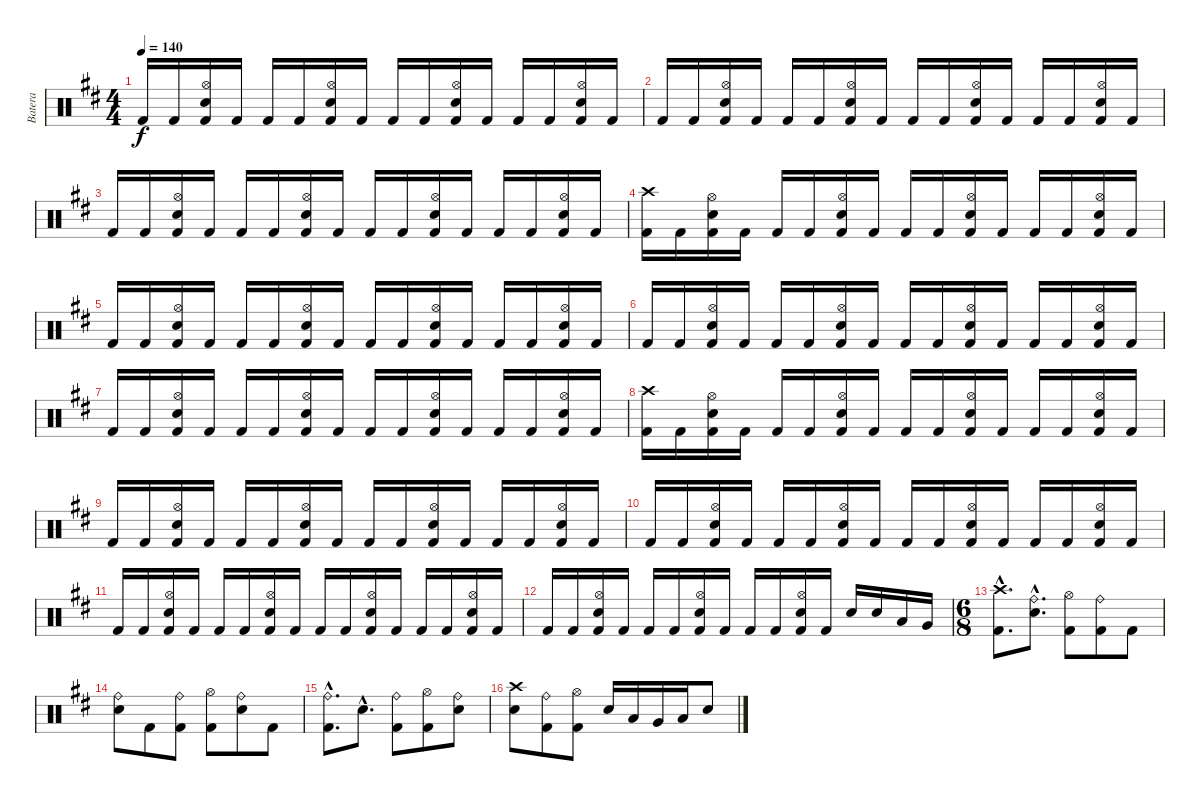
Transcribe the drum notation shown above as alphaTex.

\track ("Batera" "Batera") {instrument percussion}
\staff {score}
\articulation defaults
\ts (4 4)
\tempo 140
\clef neutral
\ks bminor "Kick (hit) 2".16{dy f} "Kick (hit) 2".16
("Hi-Hat (open)" "Electric Snare (hit)" "Kick (hit) 2").16 "Kick (hit) 2".16 "Kick (hit) 2".16 "Kick (hit) 2".16 ("Hi-Hat (open)" "Electric Snare (hit)" "Kick (hit) 2").16 "Kick (hit) 2".16 "Kick (hit) 2".16 "Kick (hit) 2".16 ("Hi-Hat (open)" "Electric Snare (hit)" "Kick (hit) 2").16 "Kick (hit) 2".16 "Kick (hit) 2".16 "Kick (hit) 2".16 ("Hi-Hat (open)" "Electric Snare (hit)" "Kick (hit) 2").16 "Kick (hit) 2".16 |
"Kick (hit) 2".16 "Kick (hit) 2".16 ("Hi-Hat (open)" "Electric Snare (hit)" "Kick (hit) 2").16 "Kick (hit) 2".16 "Kick (hit) 2".16 "Kick (hit) 2".16 ("Hi-Hat (open)" "Electric Snare (hit)" "Kick (hit) 2").16 "Kick (hit) 2".16 "Kick (hit) 2".16 "Kick (hit) 2".16 ("Hi-Hat (open)" "Electric Snare (hit)" "Kick (hit) 2").16 "Kick (hit) 2".16 "Kick (hit) 2".16 "Kick (hit) 2".16 ("Hi-Hat (open)" "Electric Snare (hit)" "Kick (hit) 2").16 "Kick (hit) 2".16 |
"Kick (hit) 2".16 "Kick (hit) 2".16 ("Hi-Hat (open)" "Electric Snare (hit)" "Kick (hit) 2").16 "Kick (hit) 2".16 "Kick (hit) 2".16 "Kick (hit) 2".16 ("Hi-Hat (open)" "Electric Snare (hit)" "Kick (hit) 2").16 "Kick (hit) 2".16 "Kick (hit) 2".16 "Kick (hit) 2".16 ("Hi-Hat (open)" "Electric Snare (hit)" "Kick (hit) 2").16 "Kick (hit) 2".16 "Kick (hit) 2".16 "Kick (hit) 2".16 ("Hi-Hat (open)" "Electric Snare (hit)" "Kick (hit) 2").16 "Kick (hit) 2".16 |
("Crash high (hit)" "Kick (hit) 2").16 "Kick (hit) 2".16 ("Hi-Hat (open)" "Electric Snare (hit)" "Kick (hit) 2").16 "Kick (hit) 2".16 "Kick (hit) 2".16 "Kick (hit) 2".16 ("Hi-Hat (open)" "Electric Snare (hit)" "Kick (hit) 2").16 "Kick (hit) 2".16 "Kick (hit) 2".16 "Kick (hit) 2".16 ("Hi-Hat (open)" "Electric Snare (hit)" "Kick (hit) 2").16 "Kick (hit) 2".16 "Kick (hit) 2".16 "Kick (hit) 2".16 ("Hi-Hat (open)" "Electric Snare (hit)" "Kick (hit) 2").16 "Kick (hit) 2".16 |
"Kick (hit) 2".16 "Kick (hit) 2".16 ("Hi-Hat (open)" "Electric Snare (hit)" "Kick (hit) 2").16 "Kick (hit) 2".16 "Kick (hit) 2".16 "Kick (hit) 2".16 ("Hi-Hat (open)" "Electric Snare (hit)" "Kick (hit) 2").16 "Kick (hit) 2".16 "Kick (hit) 2".16 "Kick (hit) 2".16 ("Hi-Hat (open)" "Electric Snare (hit)" "Kick (hit) 2").16 "Kick (hit) 2".16 "Kick (hit) 2".16 "Kick (hit) 2".16 ("Hi-Hat (open)" "Electric Snare (hit)" "Kick (hit) 2").16 "Kick (hit) 2".16 |
"Kick (hit) 2".16 "Kick (hit) 2".16 ("Hi-Hat (open)" "Electric Snare (hit)" "Kick (hit) 2").16 "Kick (hit) 2".16 "Kick (hit) 2".16 "Kick (hit) 2".16 ("Hi-Hat (open)" "Electric Snare (hit)" "Kick (hit) 2").16 "Kick (hit) 2".16 "Kick (hit) 2".16 "Kick (hit) 2".16 ("Hi-Hat (open)" "Electric Snare (hit)" "Kick (hit) 2").16 "Kick (hit) 2".16 "Kick (hit) 2".16 "Kick (hit) 2".16 ("Hi-Hat (open)" "Electric Snare (hit)" "Kick (hit) 2").16 "Kick (hit) 2".16 |
"Kick (hit) 2".16 "Kick (hit) 2".16 ("Hi-Hat (open)" "Electric Snare (hit)" "Kick (hit) 2").16 "Kick (hit) 2".16 "Kick (hit) 2".16 "Kick (hit) 2".16 ("Hi-Hat (open)" "Electric Snare (hit)" "Kick (hit) 2").16 "Kick (hit) 2".16 "Kick (hit) 2".16 "Kick (hit) 2".16 ("Hi-Hat (open)" "Electric Snare (hit)" "Kick (hit) 2").16 "Kick (hit) 2".16 "Kick (hit) 2".16 "Kick (hit) 2".16 ("Hi-Hat (open)" "Electric Snare (hit)" "Kick (hit) 2").16 "Kick (hit) 2".16 |
("Crash high (hit)" "Kick (hit) 2").16 "Kick (hit) 2".16 ("Hi-Hat (open)" "Electric Snare (hit)" "Kick (hit) 2").16 "Kick (hit) 2".16 "Kick (hit) 2".16 "Kick (hit) 2".16 ("Hi-Hat (open)" "Electric Snare (hit)" "Kick (hit) 2").16 "Kick (hit) 2".16 "Kick (hit) 2".16 "Kick (hit) 2".16 ("Hi-Hat (open)" "Electric Snare (hit)" "Kick (hit) 2").16 "Kick (hit) 2".16 "Kick (hit) 2".16 "Kick (hit) 2".16 ("Hi-Hat (open)" "Electric Snare (hit)" "Kick (hit) 2").16 "Kick (hit) 2".16 |
"Kick (hit) 2".16 "Kick (hit) 2".16 ("Hi-Hat (open)" "Electric Snare (hit)" "Kick (hit) 2").16 "Kick (hit) 2".16 "Kick (hit) 2".16 "Kick (hit) 2".16 ("Hi-Hat (open)" "Electric Snare (hit)" "Kick (hit) 2").16 "Kick (hit) 2".16 "Kick (hit) 2".16 "Kick (hit) 2".16 ("Hi-Hat (open)" "Electric Snare (hit)" "Kick (hit) 2").16 "Kick (hit) 2".16 "Kick (hit) 2".16 "Kick (hit) 2".16 ("Hi-Hat (open)" "Electric Snare (hit)" "Kick (hit) 2").16 "Kick (hit) 2".16 |
"Kick (hit) 2".16 "Kick (hit) 2".16 ("Hi-Hat (open)" "Electric Snare (hit)" "Kick (hit) 2").16 "Kick (hit) 2".16 "Kick (hit) 2".16 "Kick (hit) 2".16 ("Hi-Hat (open)" "Electric Snare (hit)" "Kick (hit) 2").16 "Kick (hit) 2".16 "Kick (hit) 2".16 "Kick (hit) 2".16 ("Hi-Hat (open)" "Electric Snare (hit)" "Kick (hit) 2").16 "Kick (hit) 2".16 "Kick (hit) 2".16 "Kick (hit) 2".16 ("Hi-Hat (open)" "Electric Snare (hit)" "Kick (hit) 2").16 "Kick (hit) 2".16 |
"Kick (hit) 2".16 "Kick (hit) 2".16 ("Hi-Hat (open)" "Electric Snare (hit)" "Kick (hit) 2").16 "Kick (hit) 2".16 "Kick (hit) 2".16 "Kick (hit) 2".16 ("Hi-Hat (open)" "Electric Snare (hit)" "Kick (hit) 2").16 "Kick (hit) 2".16 "Kick (hit) 2".16 "Kick (hit) 2".16 ("Hi-Hat (open)" "Electric Snare (hit)" "Kick (hit) 2").16 "Kick (hit) 2".16 "Kick (hit) 2".16 "Kick (hit) 2".16 ("Hi-Hat (open)" "Electric Snare (hit)" "Kick (hit) 2").16 "Kick (hit) 2".16 |
"Kick (hit) 2".16 "Kick (hit) 2".16 ("Hi-Hat (open)" "Electric Snare (hit)" "Kick (hit) 2").16 "Kick (hit) 2".16 "Kick (hit) 2".16 "Kick (hit) 2".16 ("Hi-Hat (open)" "Electric Snare (hit)" "Kick (hit) 2").16 "Kick (hit) 2".16 "Kick (hit) 2".16 "Kick (hit) 2".16 ("Hi-Hat (open)" "Electric Snare (hit)" "Kick (hit) 2").16 "Kick (hit) 2".16 "Electric Snare (hit)".16 "Electric Snare (hit)".16 "Low Floor Tom (hit)".16 "Very Low Tom (hit)".16 |
\ts (6 8)
("Crash high (hit)"{hac} "Kick (hit) 2"{hac}).8{d} ("Ride (bell)"{hac} "Electric Snare (hit)"{hac}).8{d} ("Hi-Hat (open)" "Kick (hit) 2").8 ("Ride (bell)" "Kick (hit) 2").8 "Kick (hit) 2".8 |
("Ride (bell)" "Electric Snare (hit)").8 "Kick (hit) 2".8 ("Ride (bell)" "Kick (hit) 2").8 ("Hi-Hat (open)" "Kick (hit) 2").8 ("Ride (bell)" "Electric Snare (hit)").8 "Kick (hit) 2".8 |
("Ride (bell)"{hac} "Kick (hit) 2"{hac}).8{d} "Electric Snare (hit)"{hac}.8{d} ("Ride (bell)" "Kick (hit) 2").8 ("Hi-Hat (open)" "Kick (hit) 2").8 ("Ride (bell)" "Electric Snare (hit)").8 |
("Crash high (hit)" "Electric Snare (hit)").8 ("Ride (bell)" "Kick (hit) 2").8 ("Hi-Hat (open)" "Kick (hit) 2").8 "Electric Snare (hit)".16 "Low Floor Tom (hit)".16 "Very Low Tom (hit)".16 "Low Floor Tom (hit)".16 "Electric Snare (hit)".8
